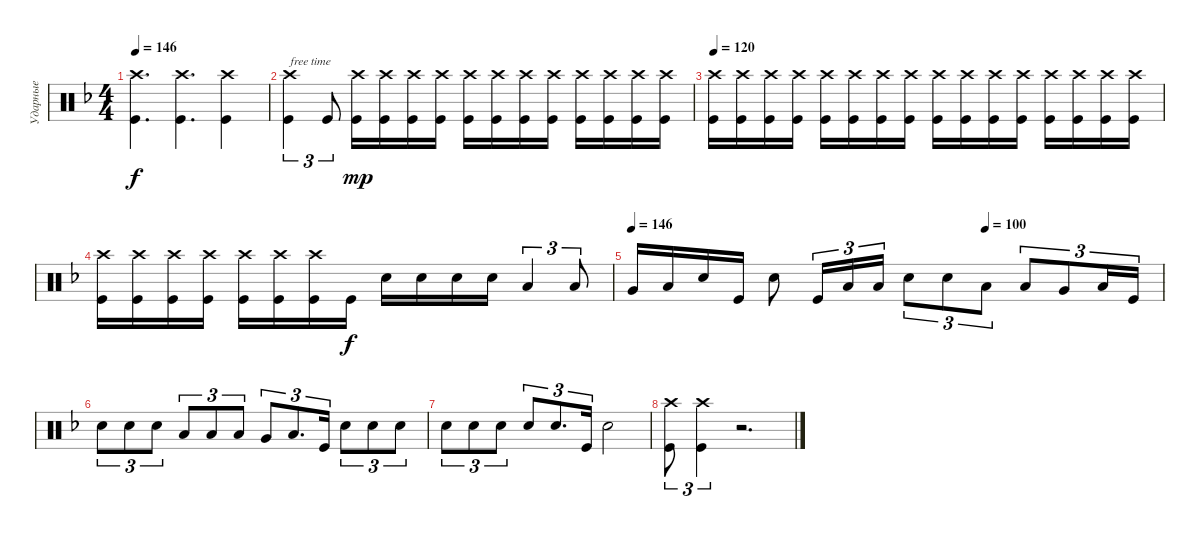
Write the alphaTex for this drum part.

\track ("Ударные" "Ударные") {instrument percussion}
\staff {score}
\articulation defaults
\ts (4 4)
\tempo 146
\clef neutral
\ks dminor
("Kick (hit)" "Crash high (hit)").4{d dy f} ("Kick (hit)" "Crash high (hit)").4{d} ("Kick (hit)" "Crash high (hit)").4 |
("Kick (hit)" "Crash high (hit)").4{tu (3 2) txt "free time"} "Kick (hit)".8{tu (3 2)} ("Kick (hit)" "Crash high (hit)").16{dy mp} ("Kick (hit)" "Crash high (hit)").16 ("Kick (hit)" "Crash high (hit)").16 ("Crash high (hit)" "Kick (hit)").16 ("Kick (hit)" "Crash high (hit)").16 ("Kick (hit)" "Crash high (hit)").16 ("Kick (hit)" "Crash high (hit)").16 ("Kick (hit)" "Crash high (hit)").16 ("Kick (hit)" "Crash high (hit)").16 ("Kick (hit)" "Crash high (hit)").16 ("Kick (hit)" "Crash high (hit)").16 ("Kick (hit)" "Crash high (hit)").16 |
\tempo 120
("Kick (hit)" "Crash high (hit)").16 ("Kick (hit)" "Crash high (hit)").16 ("Kick (hit)" "Crash high (hit)").16 ("Kick (hit)" "Crash high (hit)").16 ("Kick (hit)" "Crash high (hit)").16 ("Kick (hit)" "Crash high (hit)").16 ("Kick (hit)" "Crash high (hit)").16 ("Kick (hit)" "Crash high (hit)").16 ("Kick (hit)" "Crash high (hit)").16 ("Kick (hit)" "Crash high (hit)").16 ("Kick (hit)" "Crash high (hit)").16 ("Kick (hit)" "Crash high (hit)").16 ("Kick (hit)" "Crash high (hit)").16 ("Kick (hit)" "Crash high (hit)").16 ("Kick (hit)" "Crash high (hit)").16 ("Kick (hit)" "Crash high (hit)").16 |
("Kick (hit)" "Crash high (hit)").16 ("Kick (hit)" "Crash high (hit)").16 ("Kick (hit)" "Crash high (hit)").16 ("Kick (hit)" "Crash high (hit)").16 ("Kick (hit)" "Crash high (hit)").16 ("Kick (hit)" "Crash high (hit)").16 ("Kick (hit)" "Crash high (hit)").16 "Kick (hit)".16{dy f} "Snare (hit) 2".16 "Snare (hit) 2".16 "Snare (hit) 2".16 "Snare (hit) 2".16 "Low Tom (hit)".4{tu (3 2)} "Low Tom (hit)".8{tu (3 2)} |
\tempo 146
\tempo (100 0.6666666666666666)
"Very Low Tom (hit)".16 "Low Floor Tom (hit)".16 "Snare (hit) 2".16 "Kick (hit)".16 "Snare (hit) 2".8 "Kick (hit)".16{tu (3 2)} "Low Floor Tom (hit)".16{tu (3 2)} "Low Floor Tom (hit)".16{tu (3 2)} "Snare (hit) 2".8{tu (3 2)} "Snare (hit) 2".8{tu (3 2)} "Low Tom (hit)".8{tu (3 2)} "Low Tom (hit)".8{tu (3 2)} "Very Low Tom (hit)".8{tu (3 2)} "Low Floor Tom (hit)".16{tu (3 2)} "Kick (hit)".16{tu (3 2)} |
"Snare (hit) 2".8{tu (3 2)} "Snare (hit) 2".8{tu (3 2)} "Snare (hit) 2".8{tu (3 2)} "Low Tom (hit)".8{tu (3 2)} "Low Tom (hit)".8{tu (3 2)} "Low Floor Tom (hit)".8{tu (3 2)} "Very Low Tom (hit)".8{tu (3 2)} "Low Floor Tom (hit)".8{d tu (3 2)} "Kick (hit)".16{tu (3 2)} "Snare (hit) 2".8{tu (3 2)} "Snare (hit) 2".8{tu (3 2)} "Snare (hit) 2".8{tu (3 2)} |
"Snare (hit) 2".8{tu (3 2)} "Snare (hit) 2".8{tu (3 2)} "Snare (hit) 2".8{tu (3 2)} "Snare (hit) 2".8{tu (3 2)} "Snare (hit) 2".8{d tu (3 2)} "Kick (hit)".16{tu (3 2)} "Snare (hit) 2".2 |
("Kick (hit)" "Crash high (hit)").8{tu (3 2)} ("Kick (hit)" "Crash high (hit)").4{tu (3 2)} r.2{d}
